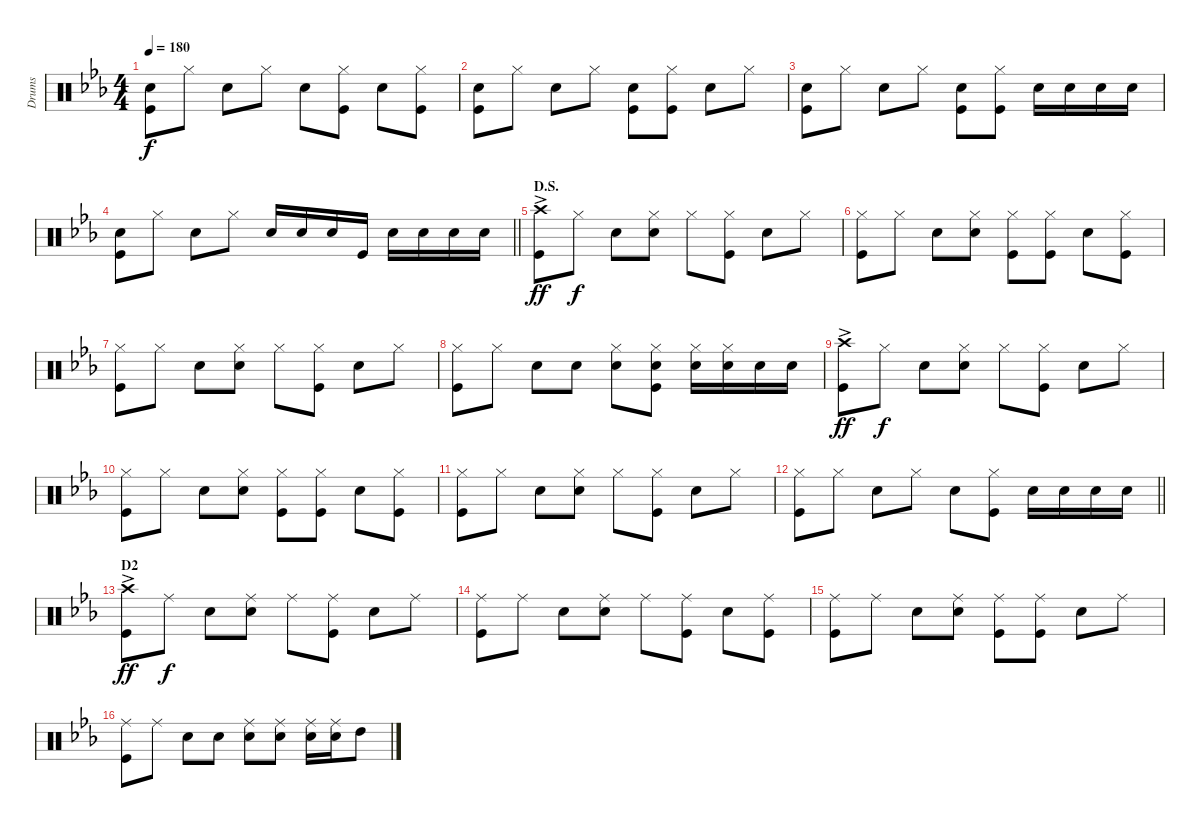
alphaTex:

\track ("Drums" "Drums") {instrument percussion}
\staff {score}
\articulation defaults
\ts (4 4)
\tempo 180
\clef neutral
\ks cminor
("Snare (hit) 2" "Kick (hit)").8{dy f} "Hi-Hat (closed)".8 "Snare (hit) 2".8 "Hi-Hat (closed)".8 "Snare (hit) 2".8 ("Hi-Hat (closed)" "Kick (hit)").8 "Snare (hit) 2".8 ("Hi-Hat (closed)" "Kick (hit)").8 |
("Kick (hit)" "Snare (hit) 2").8 "Hi-Hat (closed)".8 "Snare (hit) 2".8 "Hi-Hat (closed)".8 ("Snare (hit) 2" "Kick (hit)").8 ("Kick (hit)" "Hi-Hat (closed)").8 "Snare (hit) 2".8 "Hi-Hat (closed)".8 |
("Kick (hit)" "Snare (hit) 2").8 "Hi-Hat (closed)".8 "Snare (hit) 2".8 "Hi-Hat (closed)".8 ("Snare (hit) 2" "Kick (hit)").8 ("Hi-Hat (closed)" "Kick (hit)").8 "Snare (hit) 2".16 "Snare (hit) 2".16 "Snare (hit) 2".16 "Snare (hit) 2".16 |
\barLineRight lightlight
("Snare (hit) 2" "Kick (hit)").8 "Hi-Hat (closed)".8 "Snare (hit) 2".8 "Hi-Hat (closed)".8 "Snare (hit) 2".16 "Snare (hit) 2".16 "Snare (hit) 2".16 "Kick (hit)".16 "Snare (hit) 2".16 "Snare (hit) 2".16 "Snare (hit) 2".16 "Snare (hit) 2".16 |
\section ("" "D.S.")
("Crash high (hit)"{ac} "Kick (hit)").8{dy ff} "Hi-Hat (closed)".8{dy f} "Snare (hit) 2".8 ("Snare (hit) 2" "Hi-Hat (closed)").8 "Hi-Hat (closed)".8 ("Kick (hit)" "Hi-Hat (closed)").8 "Snare (hit) 2".8 "Hi-Hat (closed)".8 |
("Hi-Hat (closed)" "Kick (hit)").8 "Hi-Hat (closed)".8 "Snare (hit) 2".8 ("Snare (hit) 2" "Hi-Hat (closed)").8 ("Hi-Hat (closed)" "Kick (hit)").8 ("Kick (hit)" "Hi-Hat (closed)").8 "Snare (hit) 2".8 ("Kick (hit)" "Hi-Hat (closed)").8 |
("Hi-Hat (closed)" "Kick (hit)").8 "Hi-Hat (closed)".8 "Snare (hit) 2".8 ("Snare (hit) 2" "Hi-Hat (closed)").8 "Hi-Hat (closed)".8 ("Hi-Hat (closed)" "Kick (hit)").8 "Snare (hit) 2".8 "Hi-Hat (closed)".8 |
("Hi-Hat (closed)" "Kick (hit)").8 "Hi-Hat (closed)".8 "Snare (hit) 2".8 "Snare (hit) 2".8 ("Snare (hit) 2" "Hi-Hat (closed)").8 ("Snare (hit) 2" "Kick (hit)" "Hi-Hat (closed)").8 ("Hi-Hat (closed)" "Snare (hit) 2").16 ("Snare (hit) 2" "Hi-Hat (closed)").16 "Snare (hit) 2".16 "Snare (hit) 2".16 |
("Crash high (hit)"{ac} "Kick (hit)").8{dy ff} "Hi-Hat (closed)".8{dy f} "Snare (hit) 2".8 ("Snare (hit) 2" "Hi-Hat (closed)").8 "Hi-Hat (closed)".8 ("Hi-Hat (closed)" "Kick (hit)").8 "Snare (hit) 2".8 "Hi-Hat (closed)".8 |
("Hi-Hat (closed)" "Kick (hit)").8 "Hi-Hat (closed)".8 "Snare (hit) 2".8 ("Snare (hit) 2" "Hi-Hat (closed)").8 ("Hi-Hat (closed)" "Kick (hit)").8 ("Kick (hit)" "Hi-Hat (closed)").8 "Snare (hit) 2".8 ("Kick (hit)" "Hi-Hat (closed)").8 |
("Hi-Hat (closed)" "Kick (hit)").8 "Hi-Hat (closed)".8 "Snare (hit) 2".8 ("Snare (hit) 2" "Hi-Hat (closed)").8 "Hi-Hat (closed)".8 ("Hi-Hat (closed)" "Kick (hit)").8 "Snare (hit) 2".8 "Hi-Hat (closed)".8 |
\barLineRight lightlight
("Hi-Hat (closed)" "Kick (hit)").8 "Hi-Hat (closed)".8 "Snare (hit) 2".8 "Hi-Hat (closed)".8 "Snare (hit) 2".8 ("Hi-Hat (closed)" "Kick (hit)").8 "Snare (hit) 2".16 "Snare (hit) 2".16 "Snare (hit) 2".16 "Snare (hit) 2".16 |
\section ("" "D2")
("Crash high (hit)"{ac} "Kick (hit)").8{dy ff} "Ride (middle)".8{dy f} "Snare (hit) 2".8 ("Snare (hit) 2" "Ride (middle)").8 "Ride (middle)".8 ("Ride (middle)" "Kick (hit)").8 "Snare (hit) 2".8 "Ride (middle)".8 |
("Ride (middle)" "Kick (hit)").8 "Ride (middle)".8 "Snare (hit) 2".8 ("Snare (hit) 2" "Ride (middle)").8 "Ride (middle)".8 ("Ride (middle)" "Kick (hit)").8 "Snare (hit) 2".8 ("Ride (middle)" "Kick (hit)").8 |
("Kick (hit)" "Ride (middle)").8 "Ride (middle)".8 "Snare (hit) 2".8 ("Snare (hit) 2" "Ride (middle)").8 ("Ride (middle)" "Kick (hit)").8 ("Kick (hit)" "Ride (middle)").8 "Snare (hit) 2".8 "Ride (middle)".8 |
("Ride (middle)" "Kick (hit)").8 "Ride (middle)".8 "Snare (hit) 2".8 "Snare (hit) 2".8 ("Snare (hit) 2" "Ride (middle)").8 ("Ride (middle)" "Snare (hit) 2").8 ("Snare (hit) 2" "Ride (middle)").16 ("Ride (middle)" "Snare (hit) 2").16 "High Tom (hit)".8
